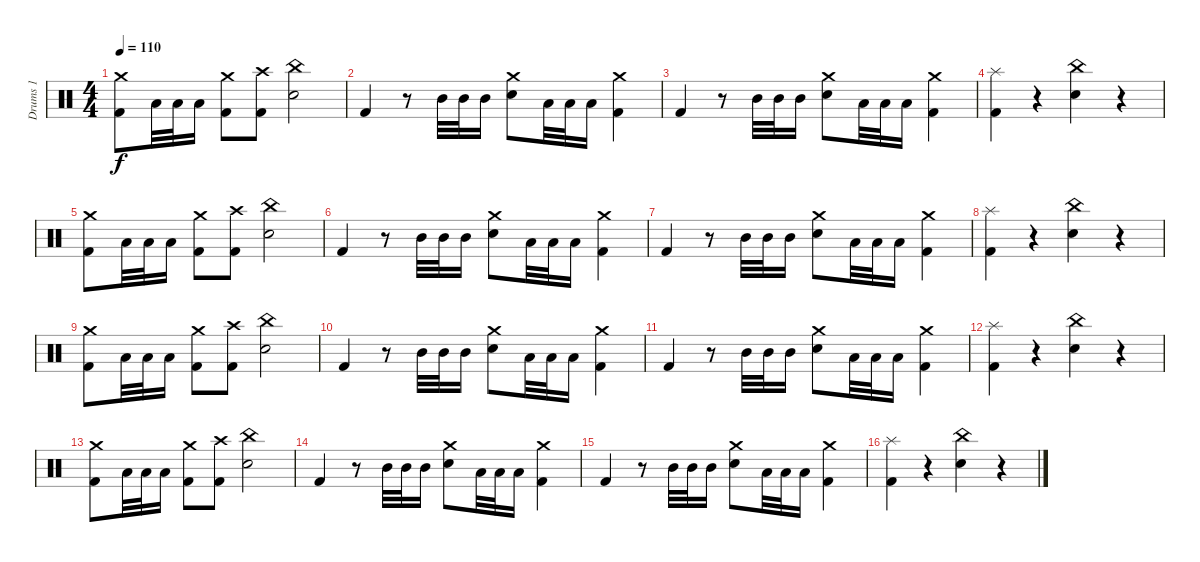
\track ("Drums 1" "Drums 1") {instrument percussion}
\staff {score}
\articulation defaults
\ts (4 4)
\tempo 110
\clef neutral
\ks c
("Crash medium (hit)" "Kick (hit) 2").8{dy f} "Low Tom (hit)".32 "Low Tom (hit)".32 "Low Tom (hit)".16 ("Crash medium (hit)" "Kick (hit) 2").8 ("Crash high (hit)" "Kick (hit) 2").8 ("China (hit)" "Snare (hit) 2").2 |
"Kick (hit) 2".4 r.8 "Mid Tom (hit)".32 "Mid Tom (hit)".32 "Mid Tom (hit)".16 ("Crash medium (hit)" "Snare (hit) 2").8 "Low Tom (hit)".32 "Low Tom (hit)".32 "Low Tom (hit)".16 ("Crash medium (hit)" "Kick (hit) 2").4 |
"Kick (hit) 2".4 r.8 "Mid Tom (hit)".32 "Mid Tom (hit)".32 "Mid Tom (hit)".16 ("Crash medium (hit)" "Snare (hit) 2").8 "Low Tom (hit)".32 "Low Tom (hit)".32 "Low Tom (hit)".16 ("Crash medium (hit)" "Kick (hit) 2").4 |
("Splash (hit)" "Kick (hit) 2").4 r.4 ("China (hit)" "Snare (hit) 2").4 r.4 |
("Crash medium (hit)" "Kick (hit) 2").8 "Low Tom (hit)".32 "Low Tom (hit)".32 "Low Tom (hit)".16 ("Crash medium (hit)" "Kick (hit) 2").8 ("Crash high (hit)" "Kick (hit) 2").8 ("China (hit)" "Snare (hit) 2").2 |
"Kick (hit) 2".4 r.8 "Mid Tom (hit)".32 "Mid Tom (hit)".32 "Mid Tom (hit)".16 ("Crash medium (hit)" "Snare (hit) 2").8 "Low Tom (hit)".32 "Low Tom (hit)".32 "Low Tom (hit)".16 ("Crash medium (hit)" "Kick (hit) 2").4 |
"Kick (hit) 2".4 r.8 "Mid Tom (hit)".32 "Mid Tom (hit)".32 "Mid Tom (hit)".16 ("Crash medium (hit)" "Snare (hit) 2").8 "Low Tom (hit)".32 "Low Tom (hit)".32 "Low Tom (hit)".16 ("Crash medium (hit)" "Kick (hit) 2").4 |
("Splash (hit)" "Kick (hit) 2").4 r.4 ("China (hit)" "Snare (hit) 2").4 r.4 |
("Crash medium (hit)" "Kick (hit) 2").8 "Low Tom (hit)".32 "Low Tom (hit)".32 "Low Tom (hit)".16 ("Crash medium (hit)" "Kick (hit) 2").8 ("Crash high (hit)" "Kick (hit) 2").8 ("China (hit)" "Snare (hit) 2").2 |
"Kick (hit) 2".4 r.8 "Mid Tom (hit)".32 "Mid Tom (hit)".32 "Mid Tom (hit)".16 ("Crash medium (hit)" "Snare (hit) 2").8 "Low Tom (hit)".32 "Low Tom (hit)".32 "Low Tom (hit)".16 ("Crash medium (hit)" "Kick (hit) 2").4 |
"Kick (hit) 2".4 r.8 "Mid Tom (hit)".32 "Mid Tom (hit)".32 "Mid Tom (hit)".16 ("Crash medium (hit)" "Snare (hit) 2").8 "Low Tom (hit)".32 "Low Tom (hit)".32 "Low Tom (hit)".16 ("Crash medium (hit)" "Kick (hit) 2").4 |
("Splash (hit)" "Kick (hit) 2").4 r.4 ("China (hit)" "Snare (hit) 2").4 r.4 |
("Crash medium (hit)" "Kick (hit) 2").8 "Low Tom (hit)".32 "Low Tom (hit)".32 "Low Tom (hit)".16 ("Crash medium (hit)" "Kick (hit) 2").8 ("Crash high (hit)" "Kick (hit) 2").8 ("China (hit)" "Snare (hit) 2").2 |
"Kick (hit) 2".4 r.8 "Mid Tom (hit)".32 "Mid Tom (hit)".32 "Mid Tom (hit)".16 ("Crash medium (hit)" "Snare (hit) 2").8 "Low Tom (hit)".32 "Low Tom (hit)".32 "Low Tom (hit)".16 ("Crash medium (hit)" "Kick (hit) 2").4 |
"Kick (hit) 2".4 r.8 "Mid Tom (hit)".32 "Mid Tom (hit)".32 "Mid Tom (hit)".16 ("Crash medium (hit)" "Snare (hit) 2").8 "Low Tom (hit)".32 "Low Tom (hit)".32 "Low Tom (hit)".16 ("Crash medium (hit)" "Kick (hit) 2").4 |
("Splash (hit)" "Kick (hit) 2").4 r.4 ("China (hit)" "Snare (hit) 2").4 r.4
